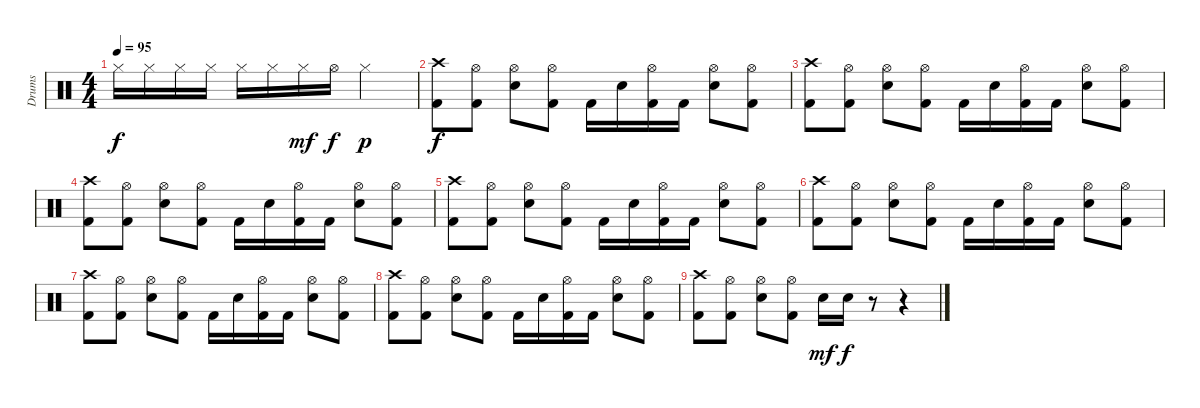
\track ("Drums" "Drums") {instrument percussion}
\staff {score}
\articulation defaults
\ts (4 4)
\tempo 95
\clef neutral
\ks c "Hi-Hat (closed)".16{dy f} "Hi-Hat (closed)".16 "Hi-Hat (closed)".16 "Hi-Hat (closed)".16 "Hi-Hat (closed)".16 "Hi-Hat (closed)".16 "Hi-Hat (closed)".16{dy mf} "Hi-Hat (open)".16{dy f} "Hi-Hat (closed)".2{dy p}
|
("Crash high (hit)" "Kick (hit) 2").8{dy f} ("Hi-Hat (open)" "Kick (hit) 2").8 ("Hi-Hat (open)" "Electric Snare (hit)").8 ("Hi-Hat (open)" "Kick (hit) 2").8 "Kick (hit) 2".16 "Electric Snare (hit)".16 ("Hi-Hat (open)" "Kick (hit) 2").16 "Kick (hit) 2".16 ("Hi-Hat (open)" "Electric Snare (hit)").8 ("Hi-Hat (open)" "Kick (hit) 2").8 |
("Crash high (hit)" "Kick (hit) 2").8 ("Hi-Hat (open)" "Kick (hit) 2").8 ("Hi-Hat (open)" "Electric Snare (hit)").8 ("Hi-Hat (open)" "Kick (hit) 2").8 "Kick (hit) 2".16 "Electric Snare (hit)".16 ("Hi-Hat (open)" "Kick (hit) 2").16 "Kick (hit) 2".16 ("Hi-Hat (open)" "Electric Snare (hit)").8 ("Hi-Hat (open)" "Kick (hit) 2").8 |
("Crash high (hit)" "Kick (hit) 2").8 ("Hi-Hat (open)" "Kick (hit) 2").8 ("Hi-Hat (open)" "Electric Snare (hit)").8 ("Hi-Hat (open)" "Kick (hit) 2").8 "Kick (hit) 2".16 "Electric Snare (hit)".16 ("Hi-Hat (open)" "Kick (hit) 2").16 "Kick (hit) 2".16 ("Hi-Hat (open)" "Electric Snare (hit)").8 ("Hi-Hat (open)" "Kick (hit) 2").8 |
("Crash high (hit)" "Kick (hit) 2").8 ("Hi-Hat (open)" "Kick (hit) 2").8 ("Hi-Hat (open)" "Electric Snare (hit)").8 ("Hi-Hat (open)" "Kick (hit) 2").8 "Kick (hit) 2".16 "Electric Snare (hit)".16 ("Hi-Hat (open)" "Kick (hit) 2").16 "Kick (hit) 2".16 ("Hi-Hat (open)" "Electric Snare (hit)").8 ("Hi-Hat (open)" "Kick (hit) 2").8 |
("Crash high (hit)" "Kick (hit) 2").8 ("Hi-Hat (open)" "Kick (hit) 2").8 ("Hi-Hat (open)" "Electric Snare (hit)").8 ("Hi-Hat (open)" "Kick (hit) 2").8 "Kick (hit) 2".16 "Electric Snare (hit)".16 ("Hi-Hat (open)" "Kick (hit) 2").16 "Kick (hit) 2".16 ("Hi-Hat (open)" "Electric Snare (hit)").8 ("Hi-Hat (open)" "Kick (hit) 2").8 |
("Crash high (hit)" "Kick (hit) 2").8 ("Hi-Hat (open)" "Kick (hit) 2").8 ("Hi-Hat (open)" "Electric Snare (hit)").8 ("Hi-Hat (open)" "Kick (hit) 2").8 "Kick (hit) 2".16 "Electric Snare (hit)".16 ("Hi-Hat (open)" "Kick (hit) 2").16 "Kick (hit) 2".16 ("Hi-Hat (open)" "Electric Snare (hit)").8 ("Hi-Hat (open)" "Kick (hit) 2").8 |
("Crash high (hit)" "Kick (hit) 2").8 ("Hi-Hat (open)" "Kick (hit) 2").8 ("Hi-Hat (open)" "Electric Snare (hit)").8 ("Hi-Hat (open)" "Kick (hit) 2").8 "Kick (hit) 2".16 "Electric Snare (hit)".16 ("Hi-Hat (open)" "Kick (hit) 2").16 "Kick (hit) 2".16 ("Hi-Hat (open)" "Electric Snare (hit)").8 ("Hi-Hat (open)" "Kick (hit) 2").8 |
("Crash high (hit)" "Kick (hit) 2").8 ("Hi-Hat (open)" "Kick (hit) 2").8 ("Hi-Hat (open)" "Electric Snare (hit)").8 ("Hi-Hat (open)" "Kick (hit) 2").8 "Electric Snare (hit)".16{dy mf} "Electric Snare (hit)".16{dy f} r.8 r.4
